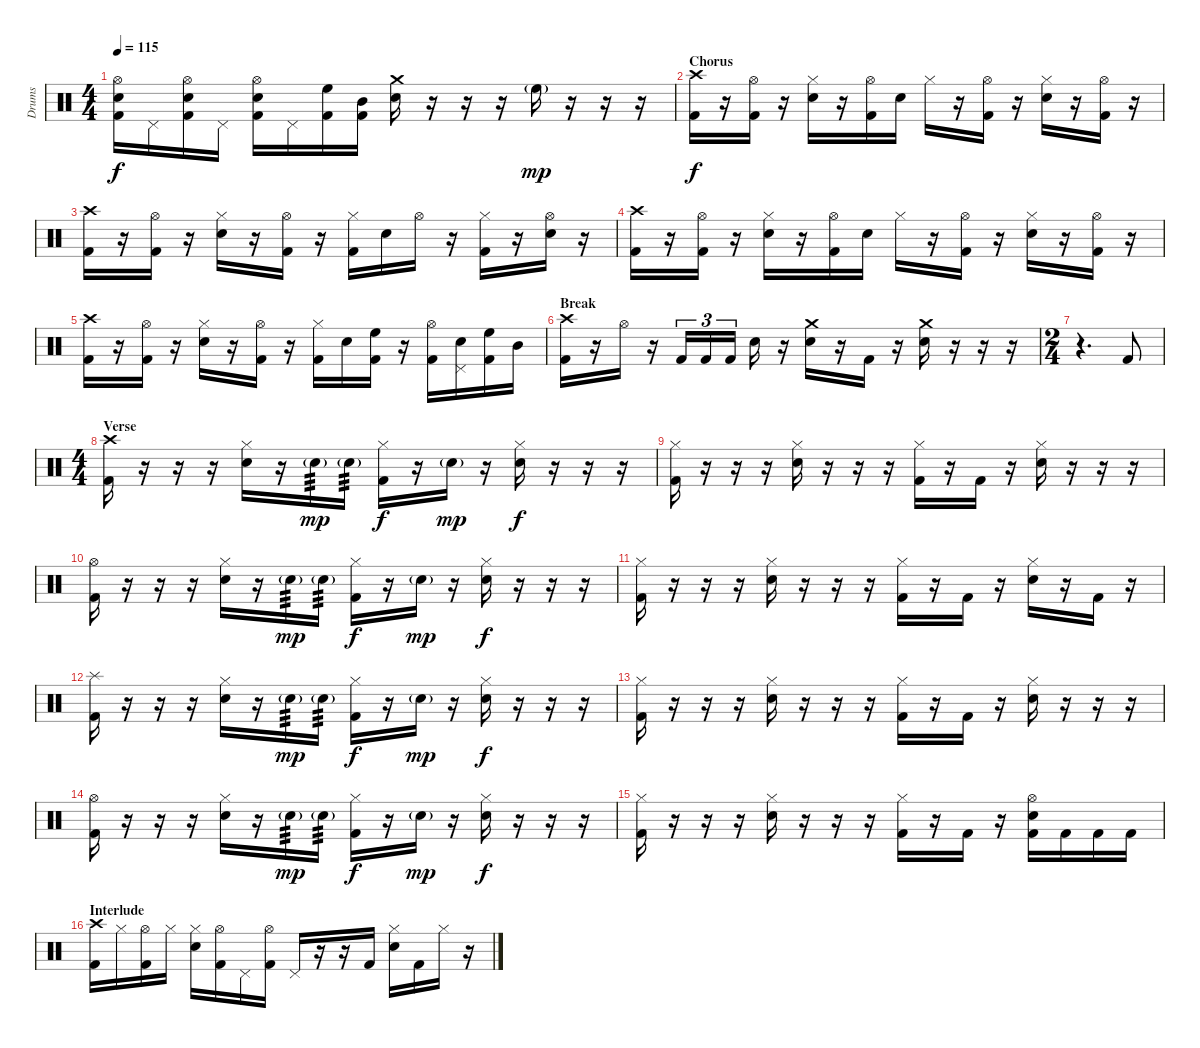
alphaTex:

\track ("Drums" "Drums") {instrument percussion}
\staff {score}
\articulation defaults
\ts (4 4)
\tempo 115
\clef neutral
\ks c
("Hi-Hat (open)" "Electric Snare (hit)" "Kick (hit) 2").16{dy f} "Pedal Hi-Hat (hit)".16 ("Hi-Hat (open)" "Electric Snare (hit)" "Kick (hit) 2").16 "Pedal Hi-Hat (hit)".16 ("Hi-Hat (open)" "Electric Snare (hit)" "Kick (hit) 2").16 "Pedal Hi-Hat (hit)".16 ("High Floor Tom (hit)" "Kick (hit) 2").16 ("Mid Tom (hit)" "Kick (hit) 2").16 ("Crash medium (hit)" "Electric Snare (hit)").16 r.16 r.16 r.16 "High Floor Tom (hit)"{g}.16{dy mp} r.16 r.16 r.16 |
\section ("" "Chorus")
("Crash high (hit)" "Kick (hit) 2").16{dy f} r.16 ("Hi-Hat (open)" "Kick (hit) 2").16 r.16 ("Hi-Hat (closed)" "Electric Snare (hit)").16 r.16 ("Hi-Hat (open)" "Kick (hit) 2").16 "Electric Snare (hit)".16 "Hi-Hat (closed)".16 r.16 ("Hi-Hat (open)" "Kick (hit) 2").16 r.16 ("Hi-Hat (closed)" "Electric Snare (hit)").16 r.16 ("Hi-Hat (open)" "Kick (hit) 2").16 r.16 |
("Crash high (hit)" "Kick (hit) 2").16 r.16 ("Hi-Hat (open)" "Kick (hit) 2").16 r.16 ("Hi-Hat (closed)" "Electric Snare (hit)").16 r.16 ("Hi-Hat (open)" "Kick (hit) 2").16 r.16 ("Hi-Hat (closed)" "Kick (hit) 2").16 "Electric Snare (hit)".16 "Hi-Hat (open)".16 r.16 ("Hi-Hat (closed)" "Kick (hit) 2").16 r.16 ("Hi-Hat (open)" "Electric Snare (hit)").16 r.16 |
("Crash high (hit)" "Kick (hit) 2").16 r.16 ("Hi-Hat (open)" "Kick (hit) 2").16 r.16 ("Hi-Hat (closed)" "Electric Snare (hit)").16 r.16 ("Hi-Hat (open)" "Kick (hit) 2").16 "Electric Snare (hit)".16 "Hi-Hat (closed)".16 r.16 ("Hi-Hat (open)" "Kick (hit) 2").16 r.16 ("Hi-Hat (closed)" "Electric Snare (hit)").16 r.16 ("Hi-Hat (open)" "Kick (hit) 2").16 r.16 |
("Crash high (hit)" "Kick (hit) 2").16 r.16 ("Hi-Hat (open)" "Kick (hit) 2").16 r.16 ("Hi-Hat (closed)" "Electric Snare (hit)").16 r.16 ("Hi-Hat (open)" "Kick (hit) 2").16 r.16 ("Hi-Hat (closed)" "Kick (hit) 2").16 "Electric Snare (hit)".16 ("High Floor Tom (hit)" "Kick (hit) 2").16 r.16 ("Hi-Hat (open)" "Kick (hit) 2").16 ("Pedal Hi-Hat (hit)" "Electric Snare (hit)").16 ("High Floor Tom (hit)" "Kick (hit) 2").16 "Mid Tom (hit)".16 |
\section ("" "Break")
("Crash high (hit)" "Kick (hit) 2").16 r.16 "Hi-Hat (open)".16 r.16 "Kick (hit) 2".16{tu (3 2)} "Kick (hit) 2".16{tu (3 2)} "Kick (hit) 2".16{tu (3 2)} "Electric Snare (hit)".16 r.16 ("Crash medium (hit)" "Electric Snare (hit)").16 r.16 "Kick (hit) 2".16 r.16 ("Crash medium (hit)" "Electric Snare (hit)").16 r.16 r.16 r.16 |
\ts (2 4)
r.4{d} "Kick (hit) 2".8 |
\ts (4 4)
\section ("" "Verse")
("Crash high (hit)" "Kick (hit) 2").16 r.16 r.16 r.16 ("Hi-Hat (closed)" "Electric Snare (hit)").16 r.16 "Electric Snare (hit)"{g}.16{tp 3 dy mp} "Electric Snare (hit)"{g}.16{tp 3} ("Hi-Hat (closed)" "Kick (hit) 2").16{dy f} r.16 "Electric Snare (hit)"{g}.16{dy mp} r.16 ("Hi-Hat (closed)" "Electric Snare (hit)").16{dy f} r.16 r.16 r.16 |
("Hi-Hat (closed)" "Kick (hit) 2").16 r.16 r.16 r.16 ("Hi-Hat (closed)" "Electric Snare (hit)").16 r.16 r.16 r.16 ("Hi-Hat (closed)" "Kick (hit) 2").16 r.16 "Kick (hit) 2".16 r.16 ("Hi-Hat (closed)" "Electric Snare (hit)").16 r.16 r.16 r.16 |
("Hi-Hat (open)" "Kick (hit) 2").16 r.16 r.16 r.16 ("Hi-Hat (closed)" "Electric Snare (hit)").16 r.16 "Electric Snare (hit)"{g}.16{tp 3 dy mp} "Electric Snare (hit)"{g}.16{tp 3} ("Hi-Hat (closed)" "Kick (hit) 2").16{dy f} r.16 "Electric Snare (hit)"{g}.16{dy mp} r.16 ("Hi-Hat (closed)" "Electric Snare (hit)").16{dy f} r.16 r.16 r.16 |
("Hi-Hat (closed)" "Kick (hit) 2").16 r.16 r.16 r.16 ("Hi-Hat (closed)" "Electric Snare (hit)").16 r.16 r.16 r.16 ("Hi-Hat (closed)" "Kick (hit) 2").16 r.16 "Kick (hit) 2".16 r.16 ("Hi-Hat (closed)" "Electric Snare (hit)").16 r.16 "Kick (hit) 2".16 r.16 |
("Splash (hit)" "Kick (hit) 2").16 r.16 r.16 r.16 ("Hi-Hat (closed)" "Electric Snare (hit)").16 r.16 "Electric Snare (hit)"{g}.16{tp 3 dy mp} "Electric Snare (hit)"{g}.16{tp 3} ("Hi-Hat (closed)" "Kick (hit) 2").16{dy f} r.16 "Electric Snare (hit)"{g}.16{dy mp} r.16 ("Hi-Hat (closed)" "Electric Snare (hit)").16{dy f} r.16 r.16 r.16 |
("Hi-Hat (closed)" "Kick (hit) 2").16 r.16 r.16 r.16 ("Hi-Hat (closed)" "Electric Snare (hit)").16 r.16 r.16 r.16 ("Hi-Hat (closed)" "Kick (hit) 2").16 r.16 "Kick (hit) 2".16 r.16 ("Hi-Hat (closed)" "Electric Snare (hit)").16 r.16 r.16 r.16 |
("Hi-Hat (open)" "Kick (hit) 2").16 r.16 r.16 r.16 ("Hi-Hat (closed)" "Electric Snare (hit)").16 r.16 "Electric Snare (hit)"{g}.16{tp 3 dy mp} "Electric Snare (hit)"{g}.16{tp 3} ("Hi-Hat (closed)" "Kick (hit) 2").16{dy f} r.16 "Electric Snare (hit)"{g}.16{dy mp} r.16 ("Hi-Hat (closed)" "Electric Snare (hit)").16{dy f} r.16 r.16 r.16 |
("Hi-Hat (closed)" "Kick (hit) 2").16 r.16 r.16 r.16 ("Hi-Hat (closed)" "Electric Snare (hit)").16 r.16 r.16 r.16 ("Hi-Hat (closed)" "Kick (hit) 2").16 r.16 "Kick (hit) 2".16 r.16 ("Hi-Hat (open)" "Electric Snare (hit)" "Kick (hit) 2").16 "Kick (hit) 2".16 "Kick (hit) 2".16 "Kick (hit) 2".16 |
\section ("" "Interlude")
("Crash high (hit)" "Kick (hit) 2").16 "Hi-Hat (closed)".16 ("Hi-Hat (open)" "Kick (hit) 2").16 "Hi-Hat (closed)".16 ("Hi-Hat (closed)" "Electric Snare (hit)").16 ("Hi-Hat (open)" "Kick (hit) 2").16 "Pedal Hi-Hat (hit)".16 ("Hi-Hat (open)" "Kick (hit) 2").16 "Pedal Hi-Hat (hit)".16 r.16 r.16 "Kick (hit) 2".16 ("Hi-Hat (closed)" "Electric Snare (hit)").16 "Kick (hit) 2".16 "Hi-Hat (closed)".16 r.16
